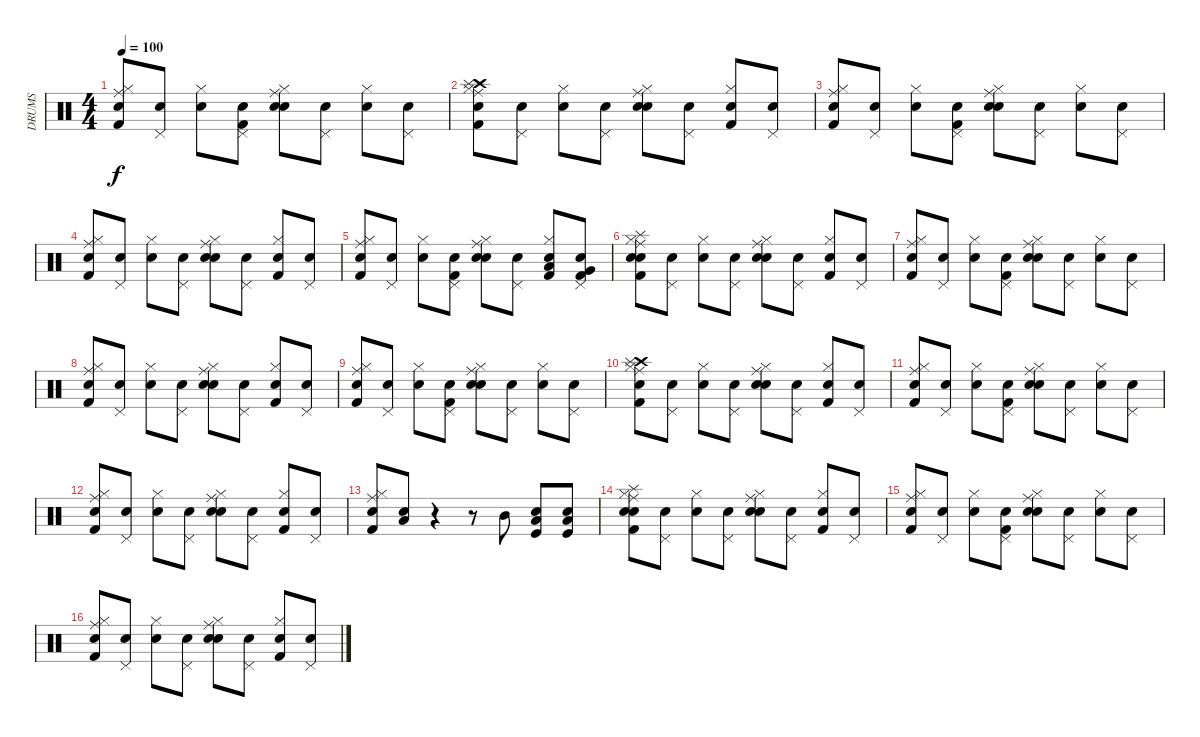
\track ("DRUMS" "DRUMS") {instrument percussion}
\staff {score}
\articulation defaults
\ts (4 4)
\tempo 100
\clef neutral
\ks c
("Snare (hit)" "Ride (middle)" "Hi-Hat (closed)" "Kick (hit) 2").8{dy f} ("Snare (hit)" "Pedal Hi-Hat (hit)").8 ("Snare (hit)" "Hi-Hat (closed)").8 ("Snare (hit)" "Pedal Hi-Hat (hit)" "Kick (hit) 2").8 ("Snare (hit)" "Ride (middle)" "Hi-Hat (closed)" "Snare (hit) 2").8 ("Snare (hit)" "Pedal Hi-Hat (hit)").8 ("Snare (hit)" "Hi-Hat (closed)").8 ("Snare (hit)" "Pedal Hi-Hat (hit)").8 |
("Snare (hit)" "Hi-Hat (closed)" "Ride (middle)" "Kick (hit) 2" "Crash high (hit)" "Splash (hit)").8 ("Snare (hit)" "Pedal Hi-Hat (hit)").8 ("Snare (hit)" "Hi-Hat (closed)").8 ("Snare (hit)" "Pedal Hi-Hat (hit)").8 ("Snare (hit)" "Ride (middle)" "Hi-Hat (closed)" "Snare (hit) 2").8 ("Snare (hit)" "Pedal Hi-Hat (hit)").8 ("Snare (hit)" "Hi-Hat (closed)" "Kick (hit) 2").8 ("Snare (hit)" "Pedal Hi-Hat (hit)").8 |
("Snare (hit)" "Ride (middle)" "Hi-Hat (closed)" "Kick (hit) 2").8 ("Snare (hit)" "Pedal Hi-Hat (hit)").8 ("Snare (hit)" "Hi-Hat (closed)").8 ("Snare (hit)" "Pedal Hi-Hat (hit)" "Kick (hit) 2").8 ("Snare (hit)" "Ride (middle)" "Hi-Hat (closed)" "Snare (hit) 2").8 ("Snare (hit)" "Pedal Hi-Hat (hit)").8 ("Snare (hit)" "Hi-Hat (closed)").8 ("Snare (hit)" "Pedal Hi-Hat (hit)").8 |
("Snare (hit)" "Kick (hit) 2" "Ride (middle)" "Hi-Hat (closed)").8 ("Snare (hit)" "Pedal Hi-Hat (hit)").8 ("Snare (hit)" "Hi-Hat (closed)").8 ("Snare (hit)" "Pedal Hi-Hat (hit)").8 ("Snare (hit)" "Ride (middle)" "Hi-Hat (closed)" "Snare (hit) 2").8 ("Snare (hit)" "Pedal Hi-Hat (hit)").8 ("Snare (hit)" "Hi-Hat (closed)" "Kick (hit) 2").8 ("Snare (hit)" "Pedal Hi-Hat (hit)").8 |
("Snare (hit)" "Ride (middle)" "Hi-Hat (closed)" "Kick (hit) 2").8 ("Snare (hit)" "Pedal Hi-Hat (hit)").8 ("Snare (hit)" "Hi-Hat (closed)").8 ("Snare (hit)" "Pedal Hi-Hat (hit)" "Kick (hit) 2").8 ("Snare (hit)" "Ride (middle)" "Hi-Hat (closed)" "Snare (hit) 2").8 ("Snare (hit)" "Pedal Hi-Hat (hit)").8 ("Snare (hit)" "Kick (hit) 2" "Low Tom (hit)" "Hi-Hat (closed)").8 ("Snare (hit)" "Very Low Tom (hit)" "Kick (hit) 2" "Pedal Hi-Hat (hit)").8 |
("Snare (hit)" "Ride (middle)" "Hi-Hat (closed)" "Kick (hit) 2" "Snare (hit) 2" "Splash (hit)").8 ("Snare (hit)" "Pedal Hi-Hat (hit)").8 ("Snare (hit)" "Hi-Hat (closed)").8 ("Snare (hit)" "Pedal Hi-Hat (hit)").8 ("Snare (hit)" "Ride (middle)" "Hi-Hat (closed)" "Snare (hit) 2").8 ("Snare (hit)" "Pedal Hi-Hat (hit)").8 ("Snare (hit)" "Hi-Hat (closed)" "Kick (hit) 2").8 ("Snare (hit)" "Pedal Hi-Hat (hit)").8 |
("Snare (hit)" "Ride (middle)" "Hi-Hat (closed)" "Kick (hit) 2").8 ("Snare (hit)" "Pedal Hi-Hat (hit)").8 ("Snare (hit)" "Hi-Hat (closed)").8 ("Snare (hit)" "Pedal Hi-Hat (hit)" "Kick (hit) 2").8 ("Snare (hit)" "Ride (middle)" "Hi-Hat (closed)" "Snare (hit) 2").8 ("Snare (hit)" "Pedal Hi-Hat (hit)").8 ("Snare (hit)" "Hi-Hat (closed)").8 ("Snare (hit)" "Pedal Hi-Hat (hit)").8 |
("Snare (hit)" "Kick (hit) 2" "Ride (middle)" "Hi-Hat (closed)").8 ("Snare (hit)" "Pedal Hi-Hat (hit)").8 ("Snare (hit)" "Hi-Hat (closed)").8 ("Snare (hit)" "Pedal Hi-Hat (hit)").8 ("Snare (hit)" "Ride (middle)" "Hi-Hat (closed)" "Snare (hit) 2").8 ("Snare (hit)" "Pedal Hi-Hat (hit)").8 ("Snare (hit)" "Hi-Hat (closed)" "Kick (hit) 2").8 ("Snare (hit)" "Pedal Hi-Hat (hit)").8 |
("Snare (hit)" "Ride (middle)" "Hi-Hat (closed)" "Kick (hit) 2").8 ("Snare (hit)" "Pedal Hi-Hat (hit)").8 ("Snare (hit)" "Hi-Hat (closed)").8 ("Snare (hit)" "Pedal Hi-Hat (hit)" "Kick (hit) 2").8 ("Snare (hit)" "Ride (middle)" "Hi-Hat (closed)" "Snare (hit) 2").8 ("Snare (hit)" "Pedal Hi-Hat (hit)").8 ("Snare (hit)" "Hi-Hat (closed)").8 ("Snare (hit)" "Pedal Hi-Hat (hit)").8 |
("Snare (hit)" "Hi-Hat (closed)" "Ride (middle)" "Kick (hit) 2" "Crash high (hit)" "Splash (hit)").8 ("Snare (hit)" "Pedal Hi-Hat (hit)").8 ("Snare (hit)" "Hi-Hat (closed)").8 ("Snare (hit)" "Pedal Hi-Hat (hit)").8 ("Snare (hit)" "Ride (middle)" "Hi-Hat (closed)" "Snare (hit) 2").8 ("Snare (hit)" "Pedal Hi-Hat (hit)").8 ("Snare (hit)" "Hi-Hat (closed)" "Kick (hit) 2").8 ("Snare (hit)" "Pedal Hi-Hat (hit)").8 |
("Snare (hit)" "Ride (middle)" "Hi-Hat (closed)" "Kick (hit) 2").8 ("Snare (hit)" "Pedal Hi-Hat (hit)").8 ("Snare (hit)" "Hi-Hat (closed)").8 ("Snare (hit)" "Pedal Hi-Hat (hit)" "Kick (hit) 2").8 ("Snare (hit)" "Ride (middle)" "Hi-Hat (closed)" "Snare (hit) 2").8 ("Snare (hit)" "Pedal Hi-Hat (hit)").8 ("Snare (hit)" "Hi-Hat (closed)").8 ("Snare (hit)" "Pedal Hi-Hat (hit)").8 |
("Snare (hit)" "Kick (hit) 2" "Ride (middle)" "Hi-Hat (closed)").8 ("Snare (hit)" "Pedal Hi-Hat (hit)").8 ("Snare (hit)" "Hi-Hat (closed)").8 ("Snare (hit)" "Pedal Hi-Hat (hit)").8 ("Snare (hit)" "Ride (middle)" "Hi-Hat (closed)" "Snare (hit) 2").8 ("Snare (hit)" "Pedal Hi-Hat (hit)").8 ("Snare (hit)" "Hi-Hat (closed)" "Kick (hit) 2").8 ("Snare (hit)" "Pedal Hi-Hat (hit)").8 |
("Snare (hit)" "Ride (middle)" "Hi-Hat (closed)" "Kick (hit) 2").8 ("Snare (hit)" "Low Tom (hit)").8 r.4 r.8 "Mid Tom (hit)".8 ("Snare (hit)" "Kick (hit)" "Low Tom (hit)").8 ("Snare (hit)" "Kick (hit)" "Low Tom (hit)").8 |
("Snare (hit)" "Ride (middle)" "Hi-Hat (closed)" "Kick (hit) 2" "Snare (hit) 2" "Splash (hit)").8 ("Snare (hit)" "Pedal Hi-Hat (hit)").8 ("Snare (hit)" "Hi-Hat (closed)").8 ("Snare (hit)" "Pedal Hi-Hat (hit)").8 ("Snare (hit)" "Ride (middle)" "Hi-Hat (closed)" "Snare (hit) 2").8 ("Snare (hit)" "Pedal Hi-Hat (hit)").8 ("Snare (hit)" "Hi-Hat (closed)" "Kick (hit) 2").8 ("Snare (hit)" "Pedal Hi-Hat (hit)").8 |
("Snare (hit)" "Ride (middle)" "Hi-Hat (closed)" "Kick (hit) 2").8 ("Snare (hit)" "Pedal Hi-Hat (hit)").8 ("Snare (hit)" "Hi-Hat (closed)").8 ("Snare (hit)" "Pedal Hi-Hat (hit)" "Kick (hit) 2").8 ("Snare (hit)" "Ride (middle)" "Hi-Hat (closed)" "Snare (hit) 2").8 ("Snare (hit)" "Pedal Hi-Hat (hit)").8 ("Snare (hit)" "Hi-Hat (closed)").8 ("Snare (hit)" "Pedal Hi-Hat (hit)").8 |
("Snare (hit)" "Kick (hit) 2" "Ride (middle)" "Hi-Hat (closed)").8 ("Snare (hit)" "Pedal Hi-Hat (hit)").8 ("Snare (hit)" "Hi-Hat (closed)").8 ("Snare (hit)" "Pedal Hi-Hat (hit)").8 ("Snare (hit)" "Ride (middle)" "Hi-Hat (closed)" "Snare (hit) 2").8 ("Snare (hit)" "Pedal Hi-Hat (hit)").8 ("Snare (hit)" "Hi-Hat (closed)" "Kick (hit) 2").8 ("Snare (hit)" "Pedal Hi-Hat (hit)").8
